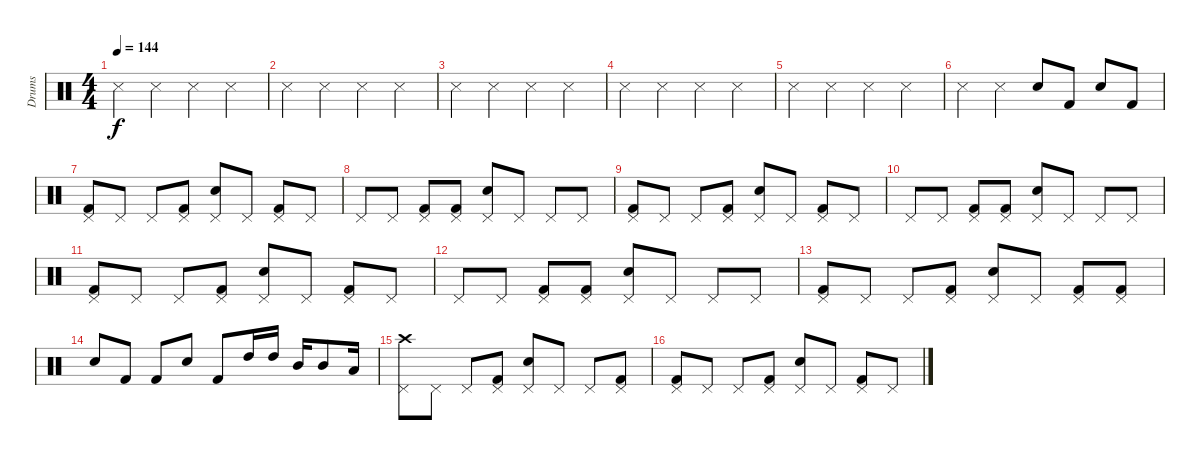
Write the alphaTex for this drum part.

\track ("Drums" "Drums") {instrument percussion}
\staff {score}
\articulation defaults
\ts (4 4)
\tempo 144
\clef neutral
\ks c "Snare (side stick) 3".4{dy f} "Snare (side stick) 3".4 "Snare (side stick) 3".4 "Snare (side stick) 3".4
|
"Snare (side stick) 3".4 "Snare (side stick) 3".4 "Snare (side stick) 3".4 "Snare (side stick) 3".4 |
"Snare (side stick) 3".4 "Snare (side stick) 3".4 "Snare (side stick) 3".4 "Snare (side stick) 3".4 |
"Snare (side stick) 3".4 "Snare (side stick) 3".4 "Snare (side stick) 3".4 "Snare (side stick) 3".4 |
"Snare (side stick) 3".4 "Snare (side stick) 3".4 "Snare (side stick) 3".4 "Snare (side stick) 3".4 |
"Snare (side stick) 3".4 "Snare (side stick) 3".4 "Snare (hit) 2".8 "Kick (hit) 2".8 "Snare (hit) 2".8 "Kick (hit) 2".8 |
("Kick (hit) 2" "Pedal Hi-Hat (hit)").8 "Pedal Hi-Hat (hit)".8 "Pedal Hi-Hat (hit)".8 ("Kick (hit) 2" "Pedal Hi-Hat (hit)").8 ("Electric Snare (hit)" "Pedal Hi-Hat (hit)").8 "Pedal Hi-Hat (hit)".8 ("Kick (hit) 2" "Pedal Hi-Hat (hit)").8 "Pedal Hi-Hat (hit)".8 |
"Pedal Hi-Hat (hit)".8 "Pedal Hi-Hat (hit)".8 ("Kick (hit) 2" "Pedal Hi-Hat (hit)").8 ("Kick (hit) 2" "Pedal Hi-Hat (hit)").8 ("Electric Snare (hit)" "Pedal Hi-Hat (hit)").8 "Pedal Hi-Hat (hit)".8 "Pedal Hi-Hat (hit)".8 "Pedal Hi-Hat (hit)".8 |
("Kick (hit) 2" "Pedal Hi-Hat (hit)").8 "Pedal Hi-Hat (hit)".8 "Pedal Hi-Hat (hit)".8 ("Kick (hit) 2" "Pedal Hi-Hat (hit)").8 ("Electric Snare (hit)" "Pedal Hi-Hat (hit)").8 "Pedal Hi-Hat (hit)".8 ("Kick (hit) 2" "Pedal Hi-Hat (hit)").8 "Pedal Hi-Hat (hit)".8 |
"Pedal Hi-Hat (hit)".8 "Pedal Hi-Hat (hit)".8 ("Kick (hit) 2" "Pedal Hi-Hat (hit)").8 ("Kick (hit) 2" "Pedal Hi-Hat (hit)").8 ("Electric Snare (hit)" "Pedal Hi-Hat (hit)").8 "Pedal Hi-Hat (hit)".8 "Pedal Hi-Hat (hit)".8 "Pedal Hi-Hat (hit)".8 |
("Kick (hit) 2" "Pedal Hi-Hat (hit)").8 "Pedal Hi-Hat (hit)".8 "Pedal Hi-Hat (hit)".8 ("Kick (hit) 2" "Pedal Hi-Hat (hit)").8 ("Electric Snare (hit)" "Pedal Hi-Hat (hit)").8 "Pedal Hi-Hat (hit)".8 ("Kick (hit) 2" "Pedal Hi-Hat (hit)").8 "Pedal Hi-Hat (hit)".8 |
"Pedal Hi-Hat (hit)".8 "Pedal Hi-Hat (hit)".8 ("Kick (hit) 2" "Pedal Hi-Hat (hit)").8 ("Kick (hit) 2" "Pedal Hi-Hat (hit)").8 ("Electric Snare (hit)" "Pedal Hi-Hat (hit)").8 "Pedal Hi-Hat (hit)".8 "Pedal Hi-Hat (hit)".8 "Pedal Hi-Hat (hit)".8 |
("Kick (hit) 2" "Pedal Hi-Hat (hit)").8 "Pedal Hi-Hat (hit)".8 "Pedal Hi-Hat (hit)".8 ("Kick (hit) 2" "Pedal Hi-Hat (hit)").8 ("Electric Snare (hit)" "Pedal Hi-Hat (hit)").8 "Pedal Hi-Hat (hit)".8 ("Kick (hit) 2" "Pedal Hi-Hat (hit)").8 ("Kick (hit) 2" "Pedal Hi-Hat (hit)").8 |
"Electric Snare (hit)".8 "Kick (hit) 2".8 "Kick (hit) 2".8 "Electric Snare (hit)".8 "Kick (hit) 2".8 "High Tom (hit)".16 "High Tom (hit)".16 "Mid Tom (hit)".16 "Mid Tom (hit)".8 "Low Tom (hit)".16 |
("Crash high (hit)" "Pedal Hi-Hat (hit)").8 "Pedal Hi-Hat (hit)".8 "Pedal Hi-Hat (hit)".8 ("Kick (hit) 2" "Pedal Hi-Hat (hit)").8 ("Electric Snare (hit)" "Pedal Hi-Hat (hit)").8 "Pedal Hi-Hat (hit)".8 "Pedal Hi-Hat (hit)".8 ("Kick (hit) 2" "Pedal Hi-Hat (hit)").8 |
("Kick (hit) 2" "Pedal Hi-Hat (hit)").8 "Pedal Hi-Hat (hit)".8 "Pedal Hi-Hat (hit)".8 ("Kick (hit) 2" "Pedal Hi-Hat (hit)").8 ("Electric Snare (hit)" "Pedal Hi-Hat (hit)").8 "Pedal Hi-Hat (hit)".8 ("Kick (hit) 2" "Pedal Hi-Hat (hit)").8 "Pedal Hi-Hat (hit)".8
